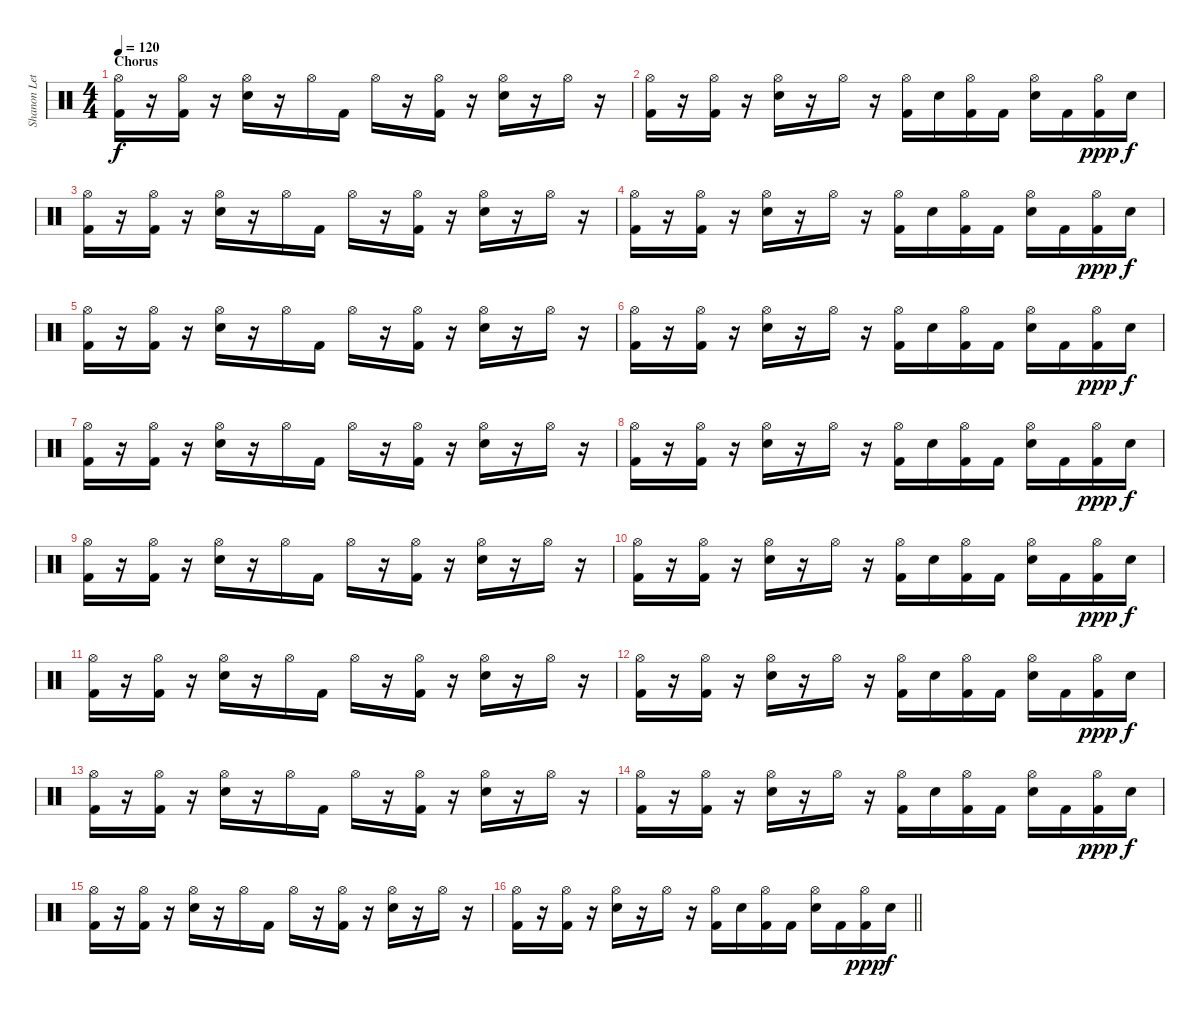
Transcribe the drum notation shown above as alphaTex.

\track ("Shanon Leto(Drums)" "Shanon Let") {instrument percussion}
\staff {score}
\articulation defaults
\ts (4 4)
\section ("" "Chorus")
\tempo 120
\clef neutral
\ks c
("Hi-Hat (open)" "Kick (hit) 2").16{dy f} r.16 ("Hi-Hat (open)" "Kick (hit) 2").16 r.16 ("Hi-Hat (open)" "Electric Snare (hit)").16 r.16 "Hi-Hat (open)".16 "Kick (hit) 2".16 "Hi-Hat (open)".16 r.16 ("Hi-Hat (open)" "Kick (hit) 2").16 r.16 ("Hi-Hat (open)" "Electric Snare (hit)").16 r.16 "Hi-Hat (open)".16 r.16 |
("Hi-Hat (open)" "Kick (hit) 2").16 r.16 ("Hi-Hat (open)" "Kick (hit) 2").16 r.16 ("Hi-Hat (open)" "Electric Snare (hit)").16 r.16 "Hi-Hat (open)".16 r.16 ("Hi-Hat (open)" "Kick (hit) 2").16 "Electric Snare (hit)".16 ("Hi-Hat (open)" "Kick (hit) 2").16 "Kick (hit) 2".16 ("Hi-Hat (open)" "Electric Snare (hit)").16 "Kick (hit) 2".16 ("Hi-Hat (open)" "Kick (hit) 2").16{dy ppp} "Electric Snare (hit)".16{dy f} |
("Hi-Hat (open)" "Kick (hit) 2").16 r.16 ("Hi-Hat (open)" "Kick (hit) 2").16 r.16 ("Hi-Hat (open)" "Electric Snare (hit)").16 r.16 "Hi-Hat (open)".16 "Kick (hit) 2".16 "Hi-Hat (open)".16 r.16 ("Hi-Hat (open)" "Kick (hit) 2").16 r.16 ("Hi-Hat (open)" "Electric Snare (hit)").16 r.16 "Hi-Hat (open)".16 r.16 |
("Hi-Hat (open)" "Kick (hit) 2").16 r.16 ("Hi-Hat (open)" "Kick (hit) 2").16 r.16 ("Hi-Hat (open)" "Electric Snare (hit)").16 r.16 "Hi-Hat (open)".16 r.16 ("Hi-Hat (open)" "Kick (hit) 2").16 "Electric Snare (hit)".16 ("Hi-Hat (open)" "Kick (hit) 2").16 "Kick (hit) 2".16 ("Hi-Hat (open)" "Electric Snare (hit)").16 "Kick (hit) 2".16 ("Hi-Hat (open)" "Kick (hit) 2").16{dy ppp} "Electric Snare (hit)".16{dy f} |
("Hi-Hat (open)" "Kick (hit) 2").16 r.16 ("Hi-Hat (open)" "Kick (hit) 2").16 r.16 ("Hi-Hat (open)" "Electric Snare (hit)").16 r.16 "Hi-Hat (open)".16 "Kick (hit) 2".16 "Hi-Hat (open)".16 r.16 ("Hi-Hat (open)" "Kick (hit) 2").16 r.16 ("Hi-Hat (open)" "Electric Snare (hit)").16 r.16 "Hi-Hat (open)".16 r.16 |
("Hi-Hat (open)" "Kick (hit) 2").16 r.16 ("Hi-Hat (open)" "Kick (hit) 2").16 r.16 ("Hi-Hat (open)" "Electric Snare (hit)").16 r.16 "Hi-Hat (open)".16 r.16 ("Hi-Hat (open)" "Kick (hit) 2").16 "Electric Snare (hit)".16 ("Hi-Hat (open)" "Kick (hit) 2").16 "Kick (hit) 2".16 ("Hi-Hat (open)" "Electric Snare (hit)").16 "Kick (hit) 2".16 ("Hi-Hat (open)" "Kick (hit) 2").16{dy ppp} "Electric Snare (hit)".16{dy f} |
("Hi-Hat (open)" "Kick (hit) 2").16 r.16 ("Hi-Hat (open)" "Kick (hit) 2").16 r.16 ("Hi-Hat (open)" "Electric Snare (hit)").16 r.16 "Hi-Hat (open)".16 "Kick (hit) 2".16 "Hi-Hat (open)".16 r.16 ("Hi-Hat (open)" "Kick (hit) 2").16 r.16 ("Hi-Hat (open)" "Electric Snare (hit)").16 r.16 "Hi-Hat (open)".16 r.16 |
("Hi-Hat (open)" "Kick (hit) 2").16 r.16 ("Hi-Hat (open)" "Kick (hit) 2").16 r.16 ("Hi-Hat (open)" "Electric Snare (hit)").16 r.16 "Hi-Hat (open)".16 r.16 ("Hi-Hat (open)" "Kick (hit) 2").16 "Electric Snare (hit)".16 ("Hi-Hat (open)" "Kick (hit) 2").16 "Kick (hit) 2".16 ("Hi-Hat (open)" "Electric Snare (hit)").16 "Kick (hit) 2".16 ("Hi-Hat (open)" "Kick (hit) 2").16{dy ppp} "Electric Snare (hit)".16{dy f} |
("Hi-Hat (open)" "Kick (hit) 2").16 r.16 ("Hi-Hat (open)" "Kick (hit) 2").16 r.16 ("Hi-Hat (open)" "Electric Snare (hit)").16 r.16 "Hi-Hat (open)".16 "Kick (hit) 2".16 "Hi-Hat (open)".16 r.16 ("Hi-Hat (open)" "Kick (hit) 2").16 r.16 ("Hi-Hat (open)" "Electric Snare (hit)").16 r.16 "Hi-Hat (open)".16 r.16 |
("Hi-Hat (open)" "Kick (hit) 2").16 r.16 ("Hi-Hat (open)" "Kick (hit) 2").16 r.16 ("Hi-Hat (open)" "Electric Snare (hit)").16 r.16 "Hi-Hat (open)".16 r.16 ("Hi-Hat (open)" "Kick (hit) 2").16 "Electric Snare (hit)".16 ("Hi-Hat (open)" "Kick (hit) 2").16 "Kick (hit) 2".16 ("Hi-Hat (open)" "Electric Snare (hit)").16 "Kick (hit) 2".16 ("Hi-Hat (open)" "Kick (hit) 2").16{dy ppp} "Electric Snare (hit)".16{dy f} |
("Hi-Hat (open)" "Kick (hit) 2").16 r.16 ("Hi-Hat (open)" "Kick (hit) 2").16 r.16 ("Hi-Hat (open)" "Electric Snare (hit)").16 r.16 "Hi-Hat (open)".16 "Kick (hit) 2".16 "Hi-Hat (open)".16 r.16 ("Hi-Hat (open)" "Kick (hit) 2").16 r.16 ("Hi-Hat (open)" "Electric Snare (hit)").16 r.16 "Hi-Hat (open)".16 r.16 |
("Hi-Hat (open)" "Kick (hit) 2").16 r.16 ("Hi-Hat (open)" "Kick (hit) 2").16 r.16 ("Hi-Hat (open)" "Electric Snare (hit)").16 r.16 "Hi-Hat (open)".16 r.16 ("Hi-Hat (open)" "Kick (hit) 2").16 "Electric Snare (hit)".16 ("Hi-Hat (open)" "Kick (hit) 2").16 "Kick (hit) 2".16 ("Hi-Hat (open)" "Electric Snare (hit)").16 "Kick (hit) 2".16 ("Hi-Hat (open)" "Kick (hit) 2").16{dy ppp} "Electric Snare (hit)".16{dy f} |
("Hi-Hat (open)" "Kick (hit) 2").16 r.16 ("Hi-Hat (open)" "Kick (hit) 2").16 r.16 ("Hi-Hat (open)" "Electric Snare (hit)").16 r.16 "Hi-Hat (open)".16 "Kick (hit) 2".16 "Hi-Hat (open)".16 r.16 ("Hi-Hat (open)" "Kick (hit) 2").16 r.16 ("Hi-Hat (open)" "Electric Snare (hit)").16 r.16 "Hi-Hat (open)".16 r.16 |
("Hi-Hat (open)" "Kick (hit) 2").16 r.16 ("Hi-Hat (open)" "Kick (hit) 2").16 r.16 ("Hi-Hat (open)" "Electric Snare (hit)").16 r.16 "Hi-Hat (open)".16 r.16 ("Hi-Hat (open)" "Kick (hit) 2").16 "Electric Snare (hit)".16 ("Hi-Hat (open)" "Kick (hit) 2").16 "Kick (hit) 2".16 ("Hi-Hat (open)" "Electric Snare (hit)").16 "Kick (hit) 2".16 ("Hi-Hat (open)" "Kick (hit) 2").16{dy ppp} "Electric Snare (hit)".16{dy f} |
("Hi-Hat (open)" "Kick (hit) 2").16 r.16 ("Hi-Hat (open)" "Kick (hit) 2").16 r.16 ("Hi-Hat (open)" "Electric Snare (hit)").16 r.16 "Hi-Hat (open)".16 "Kick (hit) 2".16 "Hi-Hat (open)".16 r.16 ("Hi-Hat (open)" "Kick (hit) 2").16 r.16 ("Hi-Hat (open)" "Electric Snare (hit)").16 r.16 "Hi-Hat (open)".16 r.16 |
\barLineRight lightlight
("Hi-Hat (open)" "Kick (hit) 2").16 r.16 ("Hi-Hat (open)" "Kick (hit) 2").16 r.16 ("Hi-Hat (open)" "Electric Snare (hit)").16 r.16 "Hi-Hat (open)".16 r.16 ("Hi-Hat (open)" "Kick (hit) 2").16 "Electric Snare (hit)".16 ("Hi-Hat (open)" "Kick (hit) 2").16 "Kick (hit) 2".16 ("Hi-Hat (open)" "Electric Snare (hit)").16 "Kick (hit) 2".16 ("Hi-Hat (open)" "Kick (hit) 2").16{dy ppp} "Electric Snare (hit)".16{dy f}
